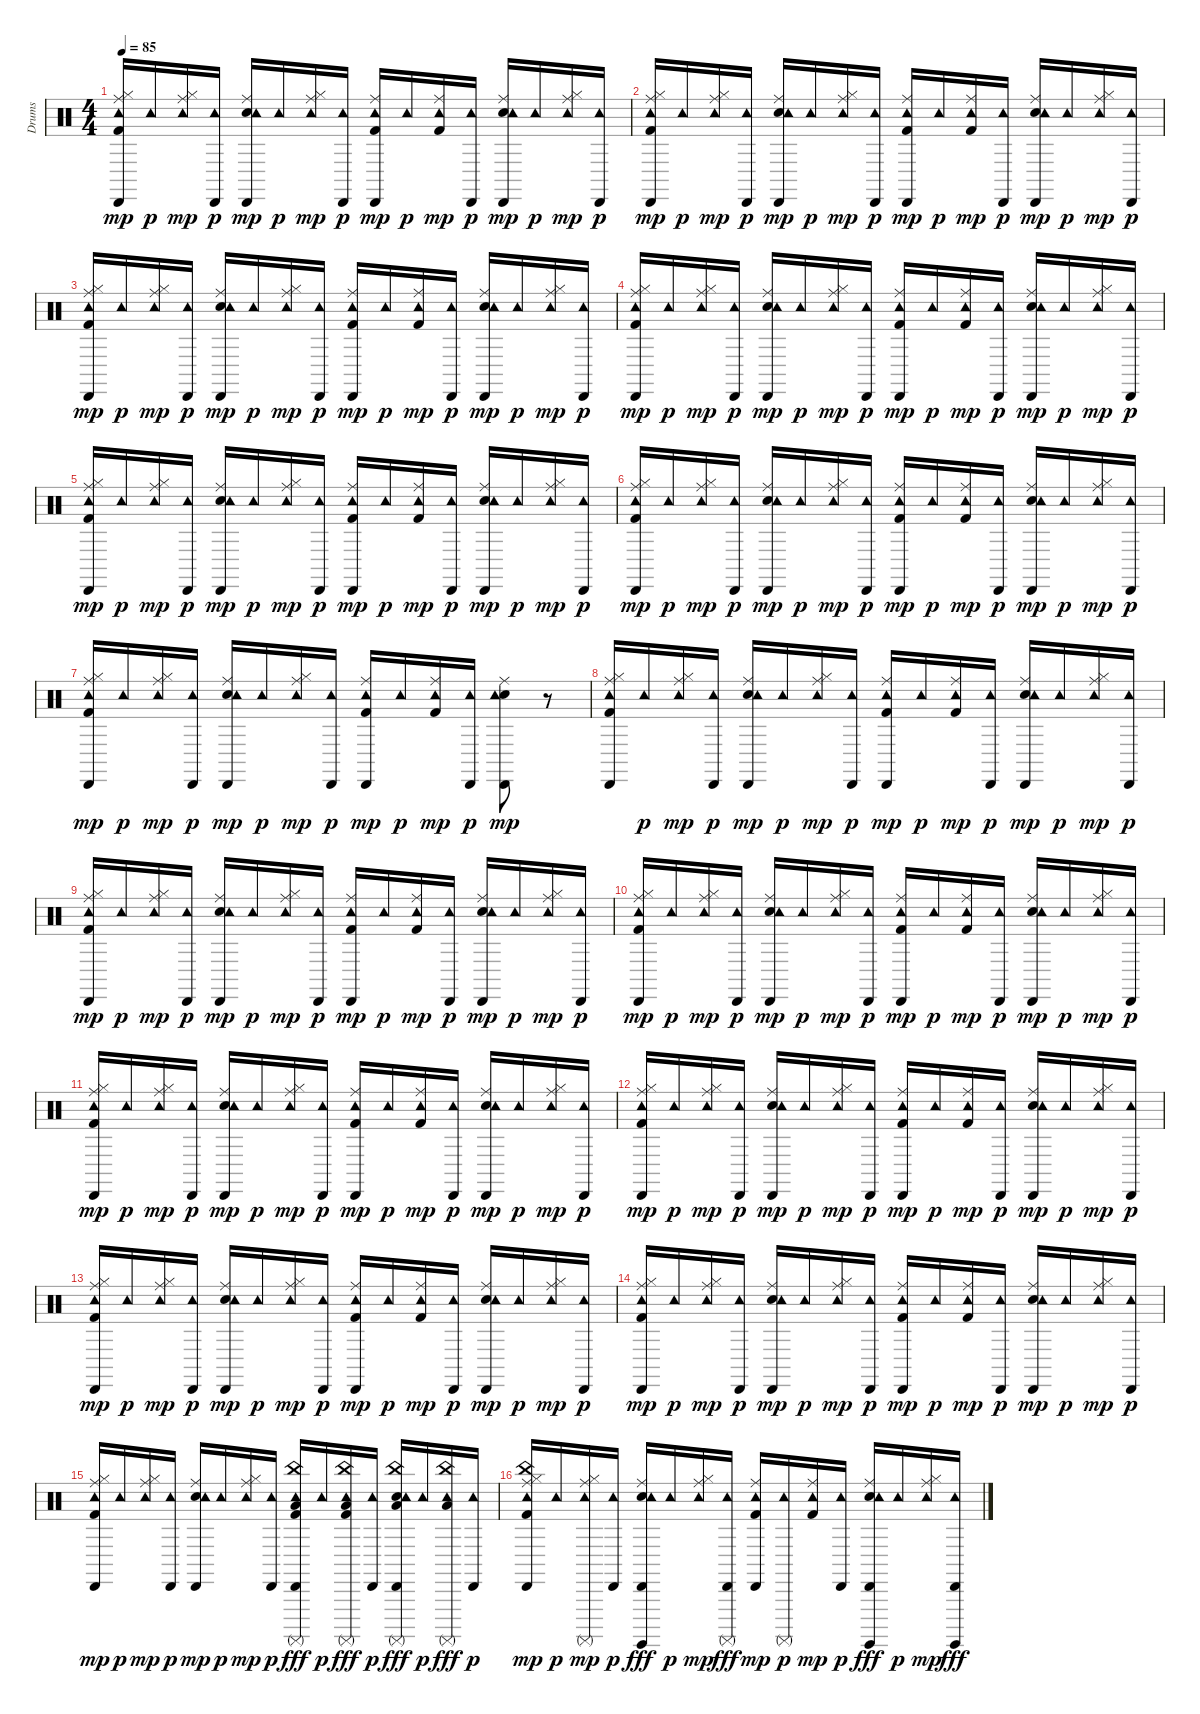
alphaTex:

\track ("Drums" "Drums") {instrument percussion}
\staff {score}
\articulation defaults
\ts (4 4)
\tempo 85
\clef neutral
\ks c
("Kick (hit) 2" "Hi-Hat (closed)" "Ride (middle)" "Tambourine (hit)" "Cabasa (hit)").16{dy mp} "Tambourine (hit)".16{dy p} ("Hi-Hat (closed)" "Ride (middle)" "Tambourine (hit)").16{dy mp} ("Cabasa (hit)" "Tambourine (hit)").16{dy p} ("Snare (hit) 2" "Ride (middle)" "Tambourine (hit)" "Cabasa (hit)").16{dy mp} "Tambourine (hit)".16{dy p} ("Hi-Hat (closed)" "Ride (middle)" "Tambourine (hit)").16{dy mp} ("Cabasa (hit)" "Tambourine (hit)").16{dy p} ("Kick (hit) 2" "Ride (middle)" "Tambourine (hit)" "Cabasa (hit)").16{dy mp} "Tambourine (hit)".16{dy p} ("Kick (hit) 2" "Ride (middle)" "Tambourine (hit)").16{dy mp} ("Cabasa (hit)" "Tambourine (hit)").16{dy p} ("Snare (hit) 2" "Ride (middle)" "Tambourine (hit)" "Cabasa (hit)").16{dy mp} "Tambourine (hit)".16{dy p} ("Hi-Hat (closed)" "Ride (middle)" "Tambourine (hit)").16{dy mp} ("Cabasa (hit)" "Tambourine (hit)").16{dy p} |
("Kick (hit) 2" "Hi-Hat (closed)" "Ride (middle)" "Tambourine (hit)" "Cabasa (hit)").16{dy mp} "Tambourine (hit)".16{dy p} ("Hi-Hat (closed)" "Ride (middle)" "Tambourine (hit)").16{dy mp} ("Cabasa (hit)" "Tambourine (hit)").16{dy p} ("Snare (hit) 2" "Ride (middle)" "Tambourine (hit)" "Cabasa (hit)").16{dy mp} "Tambourine (hit)".16{dy p} ("Hi-Hat (closed)" "Ride (middle)" "Tambourine (hit)").16{dy mp} ("Cabasa (hit)" "Tambourine (hit)").16{dy p} ("Kick (hit) 2" "Ride (middle)" "Tambourine (hit)" "Cabasa (hit)").16{dy mp} "Tambourine (hit)".16{dy p} ("Kick (hit) 2" "Ride (middle)" "Tambourine (hit)").16{dy mp} ("Cabasa (hit)" "Tambourine (hit)").16{dy p} ("Snare (hit) 2" "Ride (middle)" "Tambourine (hit)" "Cabasa (hit)").16{dy mp} "Tambourine (hit)".16{dy p} ("Hi-Hat (closed)" "Ride (middle)" "Tambourine (hit)").16{dy mp} ("Cabasa (hit)" "Tambourine (hit)").16{dy p} |
("Kick (hit) 2" "Hi-Hat (closed)" "Ride (middle)" "Tambourine (hit)" "Cabasa (hit)").16{dy mp} "Tambourine (hit)".16{dy p} ("Hi-Hat (closed)" "Ride (middle)" "Tambourine (hit)").16{dy mp} ("Cabasa (hit)" "Tambourine (hit)").16{dy p} ("Snare (hit) 2" "Ride (middle)" "Tambourine (hit)" "Cabasa (hit)").16{dy mp} "Tambourine (hit)".16{dy p} ("Hi-Hat (closed)" "Ride (middle)" "Tambourine (hit)").16{dy mp} ("Cabasa (hit)" "Tambourine (hit)").16{dy p} ("Kick (hit) 2" "Ride (middle)" "Tambourine (hit)" "Cabasa (hit)").16{dy mp} "Tambourine (hit)".16{dy p} ("Kick (hit) 2" "Ride (middle)" "Tambourine (hit)").16{dy mp} ("Cabasa (hit)" "Tambourine (hit)").16{dy p} ("Snare (hit) 2" "Ride (middle)" "Tambourine (hit)" "Cabasa (hit)").16{dy mp} "Tambourine (hit)".16{dy p} ("Hi-Hat (closed)" "Ride (middle)" "Tambourine (hit)").16{dy mp} ("Cabasa (hit)" "Tambourine (hit)").16{dy p} |
("Kick (hit) 2" "Hi-Hat (closed)" "Ride (middle)" "Tambourine (hit)" "Cabasa (hit)").16{dy mp} "Tambourine (hit)".16{dy p} ("Hi-Hat (closed)" "Ride (middle)" "Tambourine (hit)").16{dy mp} ("Cabasa (hit)" "Tambourine (hit)").16{dy p} ("Snare (hit) 2" "Ride (middle)" "Tambourine (hit)" "Cabasa (hit)").16{dy mp} "Tambourine (hit)".16{dy p} ("Hi-Hat (closed)" "Ride (middle)" "Tambourine (hit)").16{dy mp} ("Cabasa (hit)" "Tambourine (hit)").16{dy p} ("Kick (hit) 2" "Ride (middle)" "Tambourine (hit)" "Cabasa (hit)").16{dy mp} "Tambourine (hit)".16{dy p} ("Kick (hit) 2" "Ride (middle)" "Tambourine (hit)").16{dy mp} ("Cabasa (hit)" "Tambourine (hit)").16{dy p} ("Snare (hit) 2" "Ride (middle)" "Tambourine (hit)" "Cabasa (hit)").16{dy mp} "Tambourine (hit)".16{dy p} ("Hi-Hat (closed)" "Ride (middle)" "Tambourine (hit)").16{dy mp} ("Cabasa (hit)" "Tambourine (hit)").16{dy p} |
("Kick (hit) 2" "Hi-Hat (closed)" "Ride (middle)" "Tambourine (hit)" "Cabasa (hit)").16{dy mp} "Tambourine (hit)".16{dy p} ("Hi-Hat (closed)" "Ride (middle)" "Tambourine (hit)").16{dy mp} ("Cabasa (hit)" "Tambourine (hit)").16{dy p} ("Snare (hit) 2" "Ride (middle)" "Tambourine (hit)" "Cabasa (hit)").16{dy mp} "Tambourine (hit)".16{dy p} ("Hi-Hat (closed)" "Ride (middle)" "Tambourine (hit)").16{dy mp} ("Cabasa (hit)" "Tambourine (hit)").16{dy p} ("Kick (hit) 2" "Ride (middle)" "Tambourine (hit)" "Cabasa (hit)").16{dy mp} "Tambourine (hit)".16{dy p} ("Kick (hit) 2" "Ride (middle)" "Tambourine (hit)").16{dy mp} ("Cabasa (hit)" "Tambourine (hit)").16{dy p} ("Snare (hit) 2" "Ride (middle)" "Tambourine (hit)" "Cabasa (hit)").16{dy mp} "Tambourine (hit)".16{dy p} ("Hi-Hat (closed)" "Ride (middle)" "Tambourine (hit)").16{dy mp} ("Cabasa (hit)" "Tambourine (hit)").16{dy p} |
("Kick (hit) 2" "Hi-Hat (closed)" "Ride (middle)" "Tambourine (hit)" "Cabasa (hit)").16{dy mp} "Tambourine (hit)".16{dy p} ("Hi-Hat (closed)" "Ride (middle)" "Tambourine (hit)").16{dy mp} ("Cabasa (hit)" "Tambourine (hit)").16{dy p} ("Snare (hit) 2" "Ride (middle)" "Tambourine (hit)" "Cabasa (hit)").16{dy mp} "Tambourine (hit)".16{dy p} ("Hi-Hat (closed)" "Ride (middle)" "Tambourine (hit)").16{dy mp} ("Cabasa (hit)" "Tambourine (hit)").16{dy p} ("Kick (hit) 2" "Ride (middle)" "Tambourine (hit)" "Cabasa (hit)").16{dy mp} "Tambourine (hit)".16{dy p} ("Kick (hit) 2" "Ride (middle)" "Tambourine (hit)").16{dy mp} ("Cabasa (hit)" "Tambourine (hit)").16{dy p} ("Snare (hit) 2" "Ride (middle)" "Tambourine (hit)" "Cabasa (hit)").16{dy mp} "Tambourine (hit)".16{dy p} ("Hi-Hat (closed)" "Ride (middle)" "Tambourine (hit)").16{dy mp} ("Cabasa (hit)" "Tambourine (hit)").16{dy p} |
("Kick (hit) 2" "Hi-Hat (closed)" "Ride (middle)" "Tambourine (hit)" "Cabasa (hit)").16{dy mp} "Tambourine (hit)".16{dy p} ("Hi-Hat (closed)" "Ride (middle)" "Tambourine (hit)").16{dy mp} ("Cabasa (hit)" "Tambourine (hit)").16{dy p} ("Snare (hit) 2" "Ride (middle)" "Tambourine (hit)" "Cabasa (hit)").16{dy mp} "Tambourine (hit)".16{dy p} ("Hi-Hat (closed)" "Ride (middle)" "Tambourine (hit)").16{dy mp} ("Cabasa (hit)" "Tambourine (hit)").16{dy p} ("Kick (hit) 2" "Ride (middle)" "Tambourine (hit)" "Cabasa (hit)").16{dy mp} "Tambourine (hit)".16{dy p} ("Kick (hit) 2" "Ride (middle)" "Tambourine (hit)").16{dy mp} ("Cabasa (hit)" "Tambourine (hit)").16{dy p} ("Snare (hit) 2" "Ride (middle)" "Tambourine (hit)" "Cabasa (hit)").8{dy mp} r.8 |
("Kick (hit) 2" "Hi-Hat (closed)" "Ride (middle)" "Tambourine (hit)" "Cabasa (hit)").16 "Tambourine (hit)".16{dy p} ("Hi-Hat (closed)" "Ride (middle)" "Tambourine (hit)").16{dy mp} ("Cabasa (hit)" "Tambourine (hit)").16{dy p} ("Snare (hit) 2" "Ride (middle)" "Tambourine (hit)" "Cabasa (hit)").16{dy mp} "Tambourine (hit)".16{dy p} ("Hi-Hat (closed)" "Ride (middle)" "Tambourine (hit)").16{dy mp} ("Cabasa (hit)" "Tambourine (hit)").16{dy p} ("Kick (hit) 2" "Ride (middle)" "Tambourine (hit)" "Cabasa (hit)").16{dy mp} "Tambourine (hit)".16{dy p} ("Kick (hit) 2" "Ride (middle)" "Tambourine (hit)").16{dy mp} ("Cabasa (hit)" "Tambourine (hit)").16{dy p} ("Snare (hit) 2" "Ride (middle)" "Tambourine (hit)" "Cabasa (hit)").16{dy mp} "Tambourine (hit)".16{dy p} ("Hi-Hat (closed)" "Ride (middle)" "Tambourine (hit)").16{dy mp} ("Cabasa (hit)" "Tambourine (hit)").16{dy p} |
("Kick (hit) 2" "Hi-Hat (closed)" "Ride (middle)" "Tambourine (hit)" "Cabasa (hit)").16{dy mp} "Tambourine (hit)".16{dy p} ("Hi-Hat (closed)" "Ride (middle)" "Tambourine (hit)").16{dy mp} ("Cabasa (hit)" "Tambourine (hit)").16{dy p} ("Snare (hit) 2" "Ride (middle)" "Tambourine (hit)" "Cabasa (hit)").16{dy mp} "Tambourine (hit)".16{dy p} ("Hi-Hat (closed)" "Ride (middle)" "Tambourine (hit)").16{dy mp} ("Cabasa (hit)" "Tambourine (hit)").16{dy p} ("Kick (hit) 2" "Ride (middle)" "Tambourine (hit)" "Cabasa (hit)").16{dy mp} "Tambourine (hit)".16{dy p} ("Kick (hit) 2" "Ride (middle)" "Tambourine (hit)").16{dy mp} ("Cabasa (hit)" "Tambourine (hit)").16{dy p} ("Snare (hit) 2" "Ride (middle)" "Tambourine (hit)" "Cabasa (hit)").16{dy mp} "Tambourine (hit)".16{dy p} ("Hi-Hat (closed)" "Ride (middle)" "Tambourine (hit)").16{dy mp} ("Cabasa (hit)" "Tambourine (hit)").16{dy p} |
("Kick (hit) 2" "Hi-Hat (closed)" "Ride (middle)" "Tambourine (hit)" "Cabasa (hit)").16{dy mp} "Tambourine (hit)".16{dy p} ("Hi-Hat (closed)" "Ride (middle)" "Tambourine (hit)").16{dy mp} ("Cabasa (hit)" "Tambourine (hit)").16{dy p} ("Snare (hit) 2" "Ride (middle)" "Tambourine (hit)" "Cabasa (hit)").16{dy mp} "Tambourine (hit)".16{dy p} ("Hi-Hat (closed)" "Ride (middle)" "Tambourine (hit)").16{dy mp} ("Cabasa (hit)" "Tambourine (hit)").16{dy p} ("Kick (hit) 2" "Ride (middle)" "Tambourine (hit)" "Cabasa (hit)").16{dy mp} "Tambourine (hit)".16{dy p} ("Kick (hit) 2" "Ride (middle)" "Tambourine (hit)").16{dy mp} ("Cabasa (hit)" "Tambourine (hit)").16{dy p} ("Snare (hit) 2" "Ride (middle)" "Tambourine (hit)" "Cabasa (hit)").16{dy mp} "Tambourine (hit)".16{dy p} ("Hi-Hat (closed)" "Ride (middle)" "Tambourine (hit)").16{dy mp} ("Cabasa (hit)" "Tambourine (hit)").16{dy p} |
("Kick (hit) 2" "Hi-Hat (closed)" "Ride (middle)" "Tambourine (hit)" "Cabasa (hit)").16{dy mp} "Tambourine (hit)".16{dy p} ("Hi-Hat (closed)" "Ride (middle)" "Tambourine (hit)").16{dy mp} ("Cabasa (hit)" "Tambourine (hit)").16{dy p} ("Snare (hit) 2" "Ride (middle)" "Tambourine (hit)" "Cabasa (hit)").16{dy mp} "Tambourine (hit)".16{dy p} ("Hi-Hat (closed)" "Ride (middle)" "Tambourine (hit)").16{dy mp} ("Cabasa (hit)" "Tambourine (hit)").16{dy p} ("Kick (hit) 2" "Ride (middle)" "Tambourine (hit)" "Cabasa (hit)").16{dy mp} "Tambourine (hit)".16{dy p} ("Kick (hit) 2" "Ride (middle)" "Tambourine (hit)").16{dy mp} ("Cabasa (hit)" "Tambourine (hit)").16{dy p} ("Snare (hit) 2" "Ride (middle)" "Tambourine (hit)" "Cabasa (hit)").16{dy mp} "Tambourine (hit)".16{dy p} ("Hi-Hat (closed)" "Ride (middle)" "Tambourine (hit)").16{dy mp} ("Cabasa (hit)" "Tambourine (hit)").16{dy p} |
("Kick (hit) 2" "Hi-Hat (closed)" "Ride (middle)" "Tambourine (hit)" "Cabasa (hit)").16{dy mp} "Tambourine (hit)".16{dy p} ("Hi-Hat (closed)" "Ride (middle)" "Tambourine (hit)").16{dy mp} ("Cabasa (hit)" "Tambourine (hit)").16{dy p} ("Snare (hit) 2" "Ride (middle)" "Tambourine (hit)" "Cabasa (hit)").16{dy mp} "Tambourine (hit)".16{dy p} ("Hi-Hat (closed)" "Ride (middle)" "Tambourine (hit)").16{dy mp} ("Cabasa (hit)" "Tambourine (hit)").16{dy p} ("Kick (hit) 2" "Ride (middle)" "Tambourine (hit)" "Cabasa (hit)").16{dy mp} "Tambourine (hit)".16{dy p} ("Kick (hit) 2" "Ride (middle)" "Tambourine (hit)").16{dy mp} ("Cabasa (hit)" "Tambourine (hit)").16{dy p} ("Snare (hit) 2" "Ride (middle)" "Tambourine (hit)" "Cabasa (hit)").16{dy mp} "Tambourine (hit)".16{dy p} ("Hi-Hat (closed)" "Ride (middle)" "Tambourine (hit)").16{dy mp} ("Cabasa (hit)" "Tambourine (hit)").16{dy p} |
("Kick (hit) 2" "Hi-Hat (closed)" "Ride (middle)" "Tambourine (hit)" "Cabasa (hit)").16{dy mp} "Tambourine (hit)".16{dy p} ("Hi-Hat (closed)" "Ride (middle)" "Tambourine (hit)").16{dy mp} ("Cabasa (hit)" "Tambourine (hit)").16{dy p} ("Snare (hit) 2" "Ride (middle)" "Tambourine (hit)" "Cabasa (hit)").16{dy mp} "Tambourine (hit)".16{dy p} ("Hi-Hat (closed)" "Ride (middle)" "Tambourine (hit)").16{dy mp} ("Cabasa (hit)" "Tambourine (hit)").16{dy p} ("Kick (hit) 2" "Ride (middle)" "Tambourine (hit)" "Cabasa (hit)").16{dy mp} "Tambourine (hit)".16{dy p} ("Kick (hit) 2" "Ride (middle)" "Tambourine (hit)").16{dy mp} ("Cabasa (hit)" "Tambourine (hit)").16{dy p} ("Snare (hit) 2" "Ride (middle)" "Tambourine (hit)" "Cabasa (hit)").16{dy mp} "Tambourine (hit)".16{dy p} ("Hi-Hat (closed)" "Ride (middle)" "Tambourine (hit)").16{dy mp} ("Cabasa (hit)" "Tambourine (hit)").16{dy p} |
("Kick (hit) 2" "Hi-Hat (closed)" "Ride (middle)" "Tambourine (hit)" "Cabasa (hit)").16{dy mp} "Tambourine (hit)".16{dy p} ("Hi-Hat (closed)" "Ride (middle)" "Tambourine (hit)").16{dy mp} ("Cabasa (hit)" "Tambourine (hit)").16{dy p} ("Snare (hit) 2" "Ride (middle)" "Tambourine (hit)" "Cabasa (hit)").16{dy mp} "Tambourine (hit)".16{dy p} ("Hi-Hat (closed)" "Ride (middle)" "Tambourine (hit)").16{dy mp} ("Cabasa (hit)" "Tambourine (hit)").16{dy p} ("Kick (hit) 2" "Ride (middle)" "Tambourine (hit)" "Cabasa (hit)").16{dy mp} "Tambourine (hit)".16{dy p} ("Kick (hit) 2" "Ride (middle)" "Tambourine (hit)").16{dy mp} ("Cabasa (hit)" "Tambourine (hit)").16{dy p} ("Snare (hit) 2" "Ride (middle)" "Tambourine (hit)" "Cabasa (hit)").16{dy mp} "Tambourine (hit)".16{dy p} ("Hi-Hat (closed)" "Ride (middle)" "Tambourine (hit)").16{dy mp} ("Cabasa (hit)" "Tambourine (hit)").16{dy p} |
("Kick (hit) 2" "Hi-Hat (closed)" "Ride (middle)" "Tambourine (hit)" "Cabasa (hit)").16{dy mp} "Tambourine (hit)".16{dy p} ("Hi-Hat (closed)" "Ride (middle)" "Tambourine (hit)").16{dy mp} ("Cabasa (hit)" "Tambourine (hit)").16{dy p} ("Snare (hit) 2" "Ride (middle)" "Tambourine (hit)" "Cabasa (hit)").16{dy mp} "Tambourine (hit)".16{dy p} ("Hi-Hat (closed)" "Ride (middle)" "Tambourine (hit)").16{dy mp} ("Cabasa (hit)" "Tambourine (hit)").16{dy p} ("Kick (hit) 2" "Low Floor Tom (hit)" "China (hit)" "Tambourine (hit)" "Cabasa (hit)" "Surdo (mute)").16{dy fff} "Tambourine (hit)".16{dy p} ("Kick (hit) 2" "Low Floor Tom (hit)" "China (hit)" "Tambourine (hit)" "Surdo (mute)").16{dy fff} ("Cabasa (hit)" "Tambourine (hit)").16{dy p} ("Snare (hit) 2" "Low Floor Tom (hit)" "China (hit)" "Tambourine (hit)" "Cabasa (hit)" "Surdo (mute)").16{dy fff} "Tambourine (hit)".16{dy p} ("Low Floor Tom (hit)" "China (hit)" "Tambourine (hit)" "Surdo (mute)").16{dy fff} ("Cabasa (hit)" "Tambourine (hit)").16{dy p} |
("Kick (hit) 2" "Hi-Hat (closed)" "Ride (middle)" "China (hit)" "Tambourine (hit)" "Cabasa (hit)").16{dy mp} "Tambourine (hit)".16{dy p} ("Hi-Hat (closed)" "Ride (middle)" "Tambourine (hit)" "Surdo (mute)").16{dy mp} ("Cabasa (hit)" "Tambourine (hit)").16{dy p} ("Snare (hit) 2" "Ride (middle)" "Tambourine (hit)" "Cabasa (hit)" "Surdo (hit)").16{dy fff} "Tambourine (hit)".16{dy p} ("Hi-Hat (closed)" "Ride (middle)" "Tambourine (hit)").16{dy mp} ("Surdo (mute)" "Cabasa (hit)" "Tambourine (hit)").16{dy fff} ("Kick (hit) 2" "Ride (middle)" "Tambourine (hit)" "Cabasa (hit)").16{dy mp} ("Tambourine (hit)" "Surdo (mute)").16{dy p} ("Kick (hit) 2" "Ride (middle)" "Tambourine (hit)").16{dy mp} ("Cabasa (hit)" "Tambourine (hit)").16{dy p} ("Snare (hit) 2" "Ride (middle)" "Tambourine (hit)" "Cabasa (hit)" "Surdo (hit)").16{dy fff} "Tambourine (hit)".16{dy p} ("Hi-Hat (closed)" "Ride (middle)" "Tambourine (hit)").16{dy mp} ("Surdo (hit)" "Cabasa (hit)" "Tambourine (hit)").16{dy fff}
